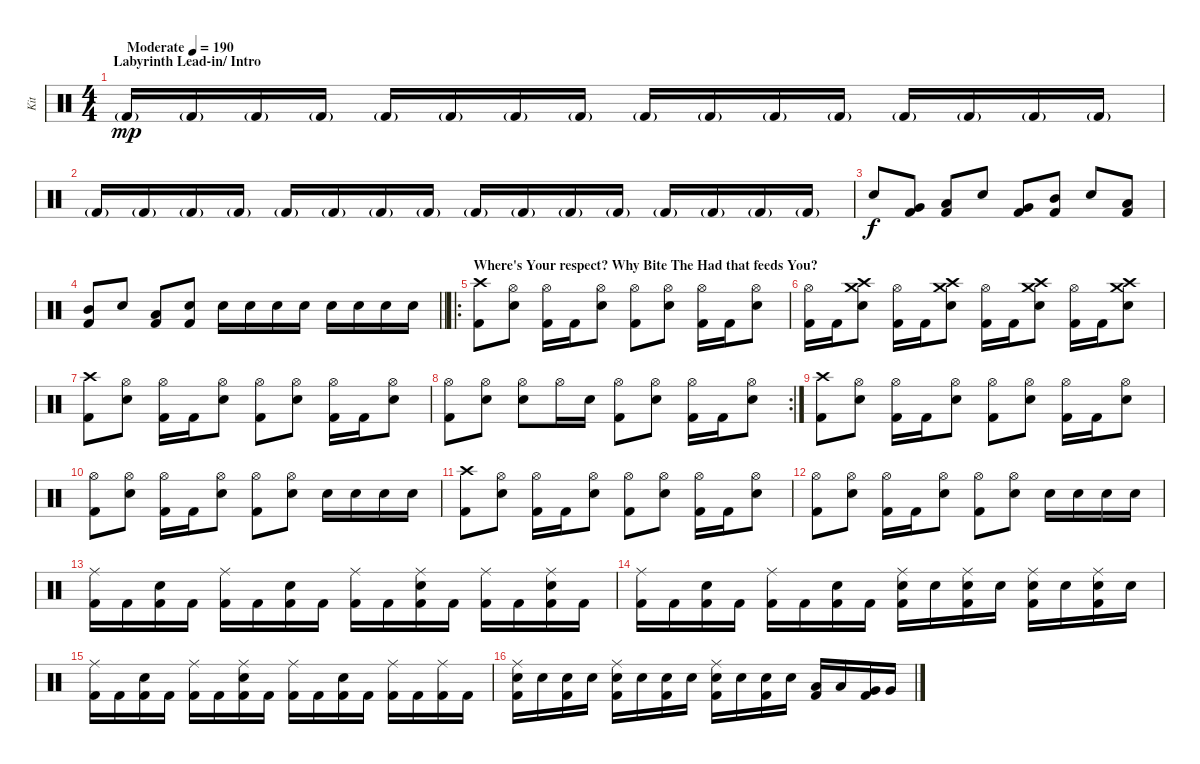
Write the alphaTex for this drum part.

\track ("Kit" "Kit") {instrument percussion}
\staff {score}
\articulation defaults
\ts (4 4)
\section ("" "Labyrinth Lead-in/ Intro")
\tempo (190 "Moderate")
\clef neutral
\ks c "Kick (hit) 2"{g}.16{dy mp} "Kick (hit) 2"{g}.16 "Kick (hit) 2"{g}.16 "Kick (hit) 2"{g}.16 "Kick (hit) 2"{g}.16 "Kick (hit) 2"{g}.16 "Kick (hit) 2"{g}.16 "Kick (hit) 2"{g}.16 "Kick (hit) 2"{g}.16 "Kick (hit) 2"{g}.16 "Kick (hit) 2"{g}.16 "Kick (hit) 2"{g}.16 "Kick (hit) 2"{g}.16 "Kick (hit) 2"{g}.16 "Kick (hit) 2"{g}.16 "Kick (hit) 2"{g}.16
|
"Kick (hit) 2"{g}.16 "Kick (hit) 2"{g}.16 "Kick (hit) 2"{g}.16 "Kick (hit) 2"{g}.16 "Kick (hit) 2"{g}.16 "Kick (hit) 2"{g}.16 "Kick (hit) 2"{g}.16 "Kick (hit) 2"{g}.16 "Kick (hit) 2"{g}.16 "Kick (hit) 2"{g}.16 "Kick (hit) 2"{g}.16 "Kick (hit) 2"{g}.16 "Kick (hit) 2"{g}.16 "Kick (hit) 2"{g}.16 "Kick (hit) 2"{g}.16 "Kick (hit) 2"{g}.16 |
"Electric Snare (hit)".8{dy f} ("Very Low Tom (hit)" "Kick (hit) 2").8 ("Low Tom (hit)" "Kick (hit) 2").8 "Electric Snare (hit)".8 ("Very Low Tom (hit)" "Kick (hit) 2").8 ("Mid Tom (hit)" "Kick (hit) 2").8 "Electric Snare (hit)".8 ("Low Tom (hit)" "Kick (hit) 2").8 |
\barLineRight lightlight
("Mid Tom (hit)" "Kick (hit) 2").8 "Electric Snare (hit)".8 ("Low Tom (hit)" "Kick (hit) 2").8 ("Electric Snare (hit)" "Kick (hit) 2").8 "Electric Snare (hit)".16 "Electric Snare (hit)".16 "Electric Snare (hit)".16 "Electric Snare (hit)".16 "Electric Snare (hit)".16 "Electric Snare (hit)".16 "Electric Snare (hit)".16 "Electric Snare (hit)".16 |
\ro
\section ("" "Where's Your respect? Why Bite The Had that feeds You?")
("Crash high (hit)" "Kick (hit) 2").8 ("Hi-Hat (open)" "Electric Snare (hit)").8 ("Hi-Hat (open)" "Kick (hit) 2").16 "Kick (hit) 2".16 ("Hi-Hat (open)" "Electric Snare (hit)").8 ("Hi-Hat (open)" "Kick (hit) 2").8 ("Hi-Hat (open)" "Electric Snare (hit)").8 ("Hi-Hat (open)" "Kick (hit) 2").16 "Kick (hit) 2".16 ("Hi-Hat (open)" "Electric Snare (hit)").8 |
("Hi-Hat (open)" "Kick (hit) 2").16 "Kick (hit) 2".16 ("Crash high (hit)" "Crash medium (hit)" "Electric Snare (hit)").8 ("Hi-Hat (open)" "Kick (hit) 2").16 "Kick (hit) 2".16 ("Crash high (hit)" "Crash medium (hit)" "Electric Snare (hit)").8 ("Hi-Hat (open)" "Kick (hit) 2").16 "Kick (hit) 2".16 ("Crash high (hit)" "Crash medium (hit)" "Electric Snare (hit)").8 ("Hi-Hat (open)" "Kick (hit) 2").16 "Kick (hit) 2".16 ("Crash high (hit)" "Crash medium (hit)" "Electric Snare (hit)").8 |
("Crash high (hit)" "Kick (hit) 2").8 ("Hi-Hat (open)" "Electric Snare (hit)").8 ("Hi-Hat (open)" "Kick (hit) 2").16 "Kick (hit) 2".16 ("Hi-Hat (open)" "Electric Snare (hit)").8 ("Hi-Hat (open)" "Kick (hit) 2").8 ("Hi-Hat (open)" "Electric Snare (hit)").8 ("Hi-Hat (open)" "Kick (hit) 2").16 "Kick (hit) 2".16 ("Hi-Hat (open)" "Electric Snare (hit)").8 |
\rc 2
("Hi-Hat (open)" "Kick (hit) 2").8 ("Hi-Hat (open)" "Electric Snare (hit)").8 ("Hi-Hat (open)" "Electric Snare (hit)").8 "Hi-Hat (open)".16 "Electric Snare (hit)".16 ("Hi-Hat (open)" "Kick (hit) 2").8 ("Hi-Hat (open)" "Electric Snare (hit)").8 ("Hi-Hat (open)" "Kick (hit) 2").16 "Kick (hit) 2".16 ("Hi-Hat (open)" "Electric Snare (hit)").8 |
("Crash high (hit)" "Kick (hit) 2").8 ("Hi-Hat (open)" "Electric Snare (hit)").8 ("Hi-Hat (open)" "Kick (hit) 2").16 "Kick (hit) 2".16 ("Hi-Hat (open)" "Electric Snare (hit)").8 ("Hi-Hat (open)" "Kick (hit) 2").8 ("Hi-Hat (open)" "Electric Snare (hit)").8 ("Hi-Hat (open)" "Kick (hit) 2").16 "Kick (hit) 2".16 ("Hi-Hat (open)" "Electric Snare (hit)").8 |
("Hi-Hat (open)" "Kick (hit) 2").8 ("Hi-Hat (open)" "Electric Snare (hit)").8 ("Hi-Hat (open)" "Kick (hit) 2").16 "Kick (hit) 2".16 ("Hi-Hat (open)" "Electric Snare (hit)").8 ("Hi-Hat (open)" "Kick (hit) 2").8 ("Hi-Hat (open)" "Electric Snare (hit)").8 "Electric Snare (hit)".16 "Electric Snare (hit)".16 "Electric Snare (hit)".16 "Electric Snare (hit)".16 |
("Crash high (hit)" "Kick (hit) 2").8 ("Hi-Hat (open)" "Electric Snare (hit)").8 ("Hi-Hat (open)" "Kick (hit) 2").16 "Kick (hit) 2".16 ("Hi-Hat (open)" "Electric Snare (hit)").8 ("Hi-Hat (open)" "Kick (hit) 2").8 ("Hi-Hat (open)" "Electric Snare (hit)").8 ("Hi-Hat (open)" "Kick (hit) 2").16 "Kick (hit) 2".16 ("Hi-Hat (open)" "Electric Snare (hit)").8 |
("Hi-Hat (open)" "Kick (hit) 2").8 ("Hi-Hat (open)" "Electric Snare (hit)").8 ("Hi-Hat (open)" "Kick (hit) 2").16 "Kick (hit) 2".16 ("Hi-Hat (open)" "Electric Snare (hit)").8 ("Hi-Hat (open)" "Kick (hit) 2").8 ("Hi-Hat (open)" "Electric Snare (hit)").8 "Electric Snare (hit)".16 "Electric Snare (hit)".16 "Electric Snare (hit)".16 "Electric Snare (hit)".16 |
("Ride (middle)" "Kick (hit) 2").16 "Kick (hit) 2".16 ("Electric Snare (hit)" "Kick (hit) 2").16 "Kick (hit) 2".16 ("Ride (middle)" "Kick (hit) 2").16 "Kick (hit) 2".16 ("Electric Snare (hit)" "Kick (hit) 2").16 "Kick (hit) 2".16 ("Ride (middle)" "Kick (hit) 2").16 "Kick (hit) 2".16 ("Ride (middle)" "Electric Snare (hit)" "Kick (hit) 2").16 "Kick (hit) 2".16 ("Ride (middle)" "Kick (hit) 2").16 "Kick (hit) 2".16 ("Ride (middle)" "Electric Snare (hit)" "Kick (hit) 2").16 "Kick (hit) 2".16 |
("Ride (middle)" "Kick (hit) 2").16 "Kick (hit) 2".16 ("Electric Snare (hit)" "Kick (hit) 2").16 "Kick (hit) 2".16 ("Ride (middle)" "Kick (hit) 2").16 "Kick (hit) 2".16 ("Electric Snare (hit)" "Kick (hit) 2").16 "Kick (hit) 2".16 ("Ride (middle)" "Electric Snare (hit)" "Kick (hit) 2").16 "Electric Snare (hit)".16 ("Ride (middle)" "Electric Snare (hit)" "Kick (hit) 2").16 "Electric Snare (hit)".16 ("Ride (middle)" "Electric Snare (hit)" "Kick (hit) 2").16 "Electric Snare (hit)".16 ("Ride (middle)" "Electric Snare (hit)" "Kick (hit) 2").16 "Electric Snare (hit)".16 |
("Ride (middle)" "Kick (hit) 2").16 "Kick (hit) 2".16 ("Electric Snare (hit)" "Kick (hit) 2").16 "Kick (hit) 2".16 ("Ride (middle)" "Kick (hit) 2").16 "Kick (hit) 2".16 ("Ride (middle)" "Electric Snare (hit)" "Kick (hit) 2").16 "Kick (hit) 2".16 ("Ride (middle)" "Kick (hit) 2").16 "Kick (hit) 2".16 ("Electric Snare (hit)" "Kick (hit) 2").16 "Kick (hit) 2".16 ("Ride (middle)" "Kick (hit) 2").16 "Kick (hit) 2".16 ("Ride (middle)" "Kick (hit) 2").16 "Kick (hit) 2".16 |
("Ride (middle)" "Electric Snare (hit)" "Kick (hit) 2").16 "Electric Snare (hit)".16 ("Electric Snare (hit)" "Kick (hit) 2").16 "Electric Snare (hit)".16 ("Ride (middle)" "Electric Snare (hit)" "Kick (hit) 2").16 "Electric Snare (hit)".16 ("Electric Snare (hit)" "Kick (hit) 2").16 "Electric Snare (hit)".16 ("Ride (middle)" "Electric Snare (hit)" "Kick (hit) 2").16 "Electric Snare (hit)".16 ("Electric Snare (hit)" "Kick (hit) 2").16 "Electric Snare (hit)".16 ("Low Tom (hit)" "Kick (hit) 2").16 "Low Tom (hit)".16 ("Very Low Tom (hit)" "Kick (hit) 2").16 "Very Low Tom (hit)".16
